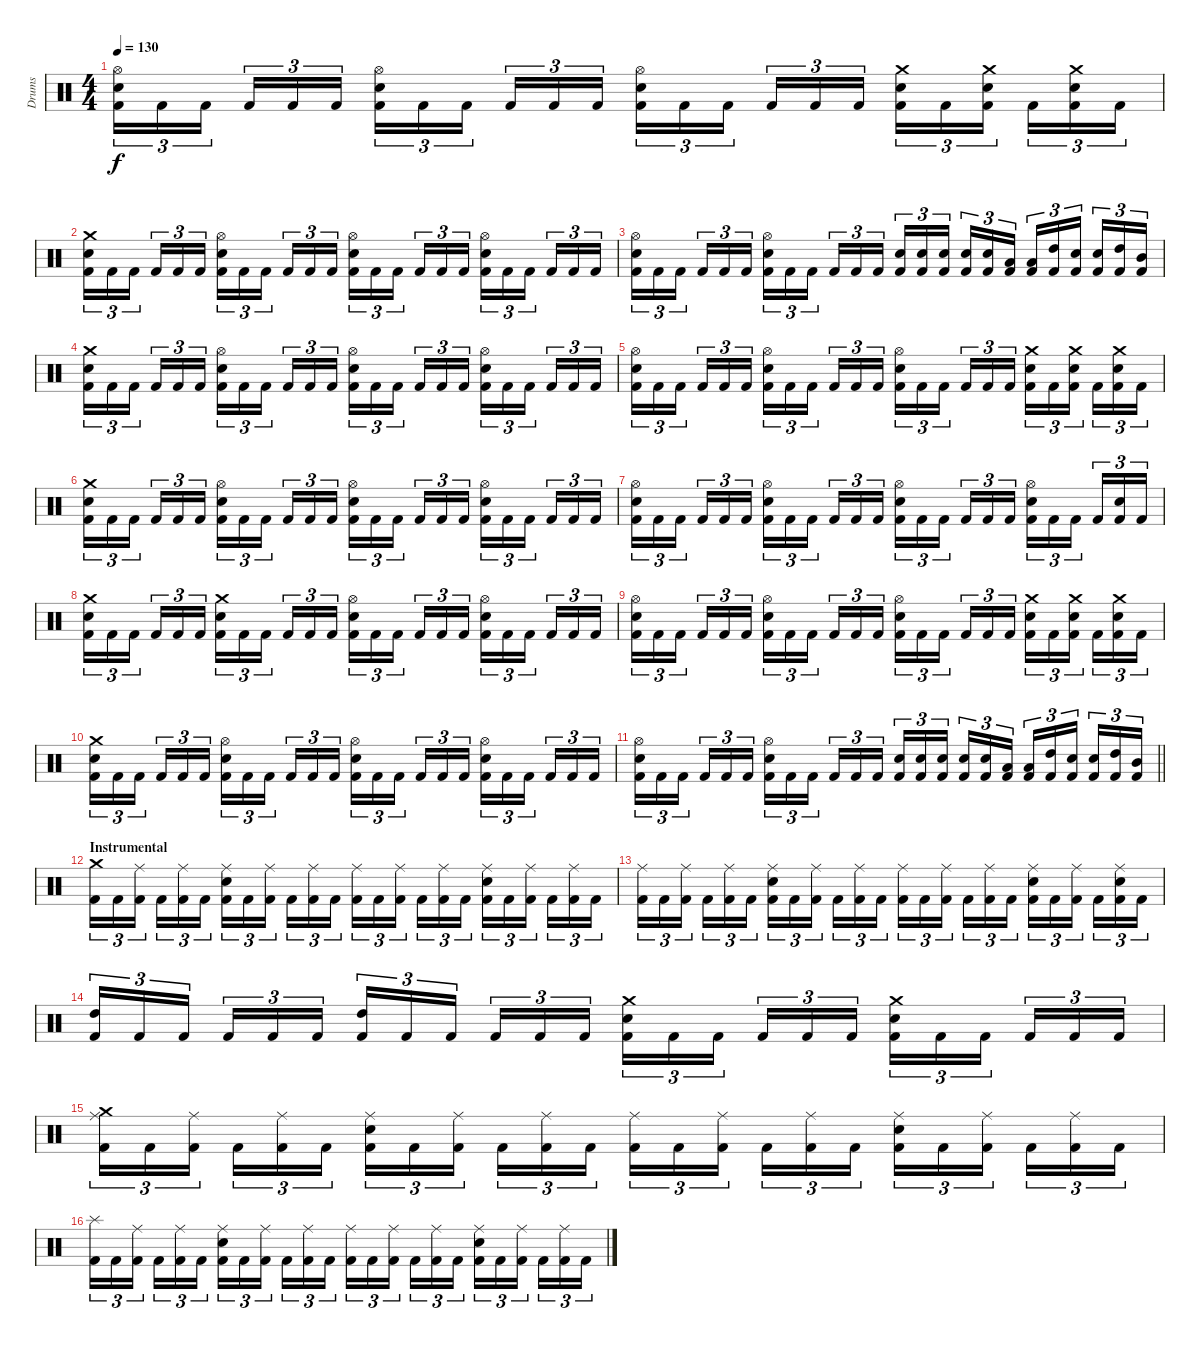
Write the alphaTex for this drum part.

\track ("Drums" "Drums") {instrument percussion}
\staff {score}
\articulation defaults
\ts (4 4)
\tempo 130
\clef neutral
\ks c
("Kick (hit) 2" "Electric Snare (hit)" "Hi-Hat (open)").16{tu (3 2) dy f} "Kick (hit) 2".16{tu (3 2)} "Kick (hit) 2".16{tu (3 2) beam splitsecondary} "Kick (hit) 2".16{tu (3 2)} "Kick (hit) 2".16{tu (3 2)} "Kick (hit) 2".16{tu (3 2)} ("Kick (hit) 2" "Electric Snare (hit)" "Hi-Hat (open)").16{tu (3 2)} "Kick (hit) 2".16{tu (3 2)} "Kick (hit) 2".16{tu (3 2) beam splitsecondary} "Kick (hit) 2".16{tu (3 2)} "Kick (hit) 2".16{tu (3 2)} "Kick (hit) 2".16{tu (3 2)} ("Kick (hit) 2" "Electric Snare (hit)" "Hi-Hat (open)").16{tu (3 2)} "Kick (hit) 2".16{tu (3 2)} "Kick (hit) 2".16{tu (3 2) beam splitsecondary} "Kick (hit) 2".16{tu (3 2)} "Kick (hit) 2".16{tu (3 2)} "Kick (hit) 2".16{tu (3 2)} ("Kick (hit) 2" "Electric Snare (hit)" "Crash medium (hit)").16{tu (3 2)} "Kick (hit) 2".16{tu (3 2)} ("Kick (hit) 2" "Electric Snare (hit)" "Crash medium (hit)").16{tu (3 2) beam splitsecondary} "Kick (hit) 2".16{tu (3 2)} ("Kick (hit) 2" "Electric Snare (hit)" "Crash medium (hit)").16{tu (3 2)} "Kick (hit) 2".16{tu (3 2)} |
("Kick (hit) 2" "Electric Snare (hit)" "Crash medium (hit)").16{tu (3 2)} "Kick (hit) 2".16{tu (3 2)} "Kick (hit) 2".16{tu (3 2) beam splitsecondary} "Kick (hit) 2".16{tu (3 2)} "Kick (hit) 2".16{tu (3 2)} "Kick (hit) 2".16{tu (3 2)} ("Kick (hit) 2" "Electric Snare (hit)" "Hi-Hat (open)").16{tu (3 2)} "Kick (hit) 2".16{tu (3 2)} "Kick (hit) 2".16{tu (3 2) beam splitsecondary} "Kick (hit) 2".16{tu (3 2)} "Kick (hit) 2".16{tu (3 2)} "Kick (hit) 2".16{tu (3 2)} ("Kick (hit) 2" "Electric Snare (hit)" "Hi-Hat (open)").16{tu (3 2)} "Kick (hit) 2".16{tu (3 2)} "Kick (hit) 2".16{tu (3 2) beam splitsecondary} "Kick (hit) 2".16{tu (3 2)} "Kick (hit) 2".16{tu (3 2)} "Kick (hit) 2".16{tu (3 2)} ("Kick (hit) 2" "Electric Snare (hit)" "Hi-Hat (open)").16{tu (3 2)} "Kick (hit) 2".16{tu (3 2)} "Kick (hit) 2".16{tu (3 2) beam splitsecondary} "Kick (hit) 2".16{tu (3 2)} "Kick (hit) 2".16{tu (3 2)} "Kick (hit) 2".16{tu (3 2)} |
("Kick (hit) 2" "Electric Snare (hit)" "Hi-Hat (open)").16{tu (3 2)} "Kick (hit) 2".16{tu (3 2)} "Kick (hit) 2".16{tu (3 2) beam splitsecondary} "Kick (hit) 2".16{tu (3 2)} "Kick (hit) 2".16{tu (3 2)} "Kick (hit) 2".16{tu (3 2)} ("Kick (hit) 2" "Electric Snare (hit)" "Hi-Hat (open)").16{tu (3 2)} "Kick (hit) 2".16{tu (3 2)} "Kick (hit) 2".16{tu (3 2) beam splitsecondary} "Kick (hit) 2".16{tu (3 2)} "Kick (hit) 2".16{tu (3 2)} "Kick (hit) 2".16{tu (3 2)} ("Kick (hit) 2" "Electric Snare (hit)").16{tu (3 2)} ("Kick (hit) 2" "Electric Snare (hit)").16{tu (3 2)} ("Kick (hit) 2" "Electric Snare (hit)").16{tu (3 2) beam splitsecondary} ("Kick (hit) 2" "Electric Snare (hit)").16{tu (3 2)} ("Kick (hit) 2" "Electric Snare (hit)").16{tu (3 2)} ("Kick (hit) 2" "Low Tom (hit)").16{tu (3 2)} ("Kick (hit) 2" "Low Tom (hit)").16{tu (3 2)} ("Kick (hit) 2" "High Tom (hit)").16{tu (3 2)} ("Kick (hit) 2" "Electric Snare (hit)").16{tu (3 2) beam splitsecondary} ("Kick (hit) 2" "Electric Snare (hit)").16{tu (3 2)} ("Kick (hit) 2" "High Tom (hit)").16{tu (3 2)} ("Kick (hit) 2" "Mid Tom (hit)").16{tu (3 2)} |
("Kick (hit) 2" "Electric Snare (hit)" "Crash medium (hit)").16{tu (3 2)} "Kick (hit) 2".16{tu (3 2)} "Kick (hit) 2".16{tu (3 2) beam splitsecondary} "Kick (hit) 2".16{tu (3 2)} "Kick (hit) 2".16{tu (3 2)} "Kick (hit) 2".16{tu (3 2)} ("Kick (hit) 2" "Electric Snare (hit)" "Hi-Hat (open)").16{tu (3 2)} "Kick (hit) 2".16{tu (3 2)} "Kick (hit) 2".16{tu (3 2) beam splitsecondary} "Kick (hit) 2".16{tu (3 2)} "Kick (hit) 2".16{tu (3 2)} "Kick (hit) 2".16{tu (3 2)} ("Kick (hit) 2" "Electric Snare (hit)" "Hi-Hat (open)").16{tu (3 2)} "Kick (hit) 2".16{tu (3 2)} "Kick (hit) 2".16{tu (3 2) beam splitsecondary} "Kick (hit) 2".16{tu (3 2)} "Kick (hit) 2".16{tu (3 2)} "Kick (hit) 2".16{tu (3 2)} ("Kick (hit) 2" "Electric Snare (hit)" "Hi-Hat (open)").16{tu (3 2)} "Kick (hit) 2".16{tu (3 2)} "Kick (hit) 2".16{tu (3 2) beam splitsecondary} "Kick (hit) 2".16{tu (3 2)} "Kick (hit) 2".16{tu (3 2)} "Kick (hit) 2".16{tu (3 2)} |
("Kick (hit) 2" "Electric Snare (hit)" "Hi-Hat (open)").16{tu (3 2)} "Kick (hit) 2".16{tu (3 2)} "Kick (hit) 2".16{tu (3 2) beam splitsecondary} "Kick (hit) 2".16{tu (3 2)} "Kick (hit) 2".16{tu (3 2)} "Kick (hit) 2".16{tu (3 2)} ("Kick (hit) 2" "Electric Snare (hit)" "Hi-Hat (open)").16{tu (3 2)} "Kick (hit) 2".16{tu (3 2)} "Kick (hit) 2".16{tu (3 2) beam splitsecondary} "Kick (hit) 2".16{tu (3 2)} "Kick (hit) 2".16{tu (3 2)} "Kick (hit) 2".16{tu (3 2)} ("Kick (hit) 2" "Electric Snare (hit)" "Hi-Hat (open)").16{tu (3 2)} "Kick (hit) 2".16{tu (3 2)} "Kick (hit) 2".16{tu (3 2) beam splitsecondary} "Kick (hit) 2".16{tu (3 2)} "Kick (hit) 2".16{tu (3 2)} "Kick (hit) 2".16{tu (3 2)} ("Kick (hit) 2" "Electric Snare (hit)" "Crash medium (hit)").16{tu (3 2)} "Kick (hit) 2".16{tu (3 2)} ("Kick (hit) 2" "Electric Snare (hit)" "Crash medium (hit)").16{tu (3 2) beam splitsecondary} "Kick (hit) 2".16{tu (3 2)} ("Kick (hit) 2" "Electric Snare (hit)" "Crash medium (hit)").16{tu (3 2)} "Kick (hit) 2".16{tu (3 2)} |
("Kick (hit) 2" "Electric Snare (hit)" "Crash medium (hit)").16{tu (3 2)} "Kick (hit) 2".16{tu (3 2)} "Kick (hit) 2".16{tu (3 2) beam splitsecondary} "Kick (hit) 2".16{tu (3 2)} "Kick (hit) 2".16{tu (3 2)} "Kick (hit) 2".16{tu (3 2)} ("Kick (hit) 2" "Electric Snare (hit)" "Hi-Hat (open)").16{tu (3 2)} "Kick (hit) 2".16{tu (3 2)} "Kick (hit) 2".16{tu (3 2) beam splitsecondary} "Kick (hit) 2".16{tu (3 2)} "Kick (hit) 2".16{tu (3 2)} "Kick (hit) 2".16{tu (3 2)} ("Kick (hit) 2" "Electric Snare (hit)" "Hi-Hat (open)").16{tu (3 2)} "Kick (hit) 2".16{tu (3 2)} "Kick (hit) 2".16{tu (3 2) beam splitsecondary} "Kick (hit) 2".16{tu (3 2)} "Kick (hit) 2".16{tu (3 2)} "Kick (hit) 2".16{tu (3 2)} ("Kick (hit) 2" "Electric Snare (hit)" "Hi-Hat (open)").16{tu (3 2)} "Kick (hit) 2".16{tu (3 2)} "Kick (hit) 2".16{tu (3 2) beam splitsecondary} "Kick (hit) 2".16{tu (3 2)} "Kick (hit) 2".16{tu (3 2)} "Kick (hit) 2".16{tu (3 2)} |
("Kick (hit) 2" "Electric Snare (hit)" "Hi-Hat (open)").16{tu (3 2)} "Kick (hit) 2".16{tu (3 2)} "Kick (hit) 2".16{tu (3 2) beam splitsecondary} "Kick (hit) 2".16{tu (3 2)} "Kick (hit) 2".16{tu (3 2)} "Kick (hit) 2".16{tu (3 2)} ("Kick (hit) 2" "Electric Snare (hit)" "Hi-Hat (open)").16{tu (3 2)} "Kick (hit) 2".16{tu (3 2)} "Kick (hit) 2".16{tu (3 2) beam splitsecondary} "Kick (hit) 2".16{tu (3 2)} "Kick (hit) 2".16{tu (3 2)} "Kick (hit) 2".16{tu (3 2)} ("Kick (hit) 2" "Electric Snare (hit)" "Hi-Hat (open)").16{tu (3 2)} "Kick (hit) 2".16{tu (3 2)} "Kick (hit) 2".16{tu (3 2) beam splitsecondary} "Kick (hit) 2".16{tu (3 2)} "Kick (hit) 2".16{tu (3 2)} "Kick (hit) 2".16{tu (3 2)} ("Kick (hit) 2" "Electric Snare (hit)" "Hi-Hat (open)").16{tu (3 2)} "Kick (hit) 2".16{tu (3 2)} "Kick (hit) 2".16{tu (3 2) beam splitsecondary} "Kick (hit) 2".16{tu (3 2)} ("Kick (hit) 2" "Electric Snare (hit)").16{tu (3 2)} "Kick (hit) 2".16{tu (3 2)} |
("Kick (hit) 2" "Electric Snare (hit)" "Crash medium (hit)").16{tu (3 2)} "Kick (hit) 2".16{tu (3 2)} "Kick (hit) 2".16{tu (3 2) beam splitsecondary} "Kick (hit) 2".16{tu (3 2)} "Kick (hit) 2".16{tu (3 2)} "Kick (hit) 2".16{tu (3 2)} ("Kick (hit) 2" "Electric Snare (hit)" "Crash medium (hit)").16{tu (3 2)} "Kick (hit) 2".16{tu (3 2)} "Kick (hit) 2".16{tu (3 2) beam splitsecondary} "Kick (hit) 2".16{tu (3 2)} "Kick (hit) 2".16{tu (3 2)} "Kick (hit) 2".16{tu (3 2)} ("Kick (hit) 2" "Electric Snare (hit)" "Hi-Hat (open)").16{tu (3 2)} "Kick (hit) 2".16{tu (3 2)} "Kick (hit) 2".16{tu (3 2) beam splitsecondary} "Kick (hit) 2".16{tu (3 2)} "Kick (hit) 2".16{tu (3 2)} "Kick (hit) 2".16{tu (3 2)} ("Kick (hit) 2" "Electric Snare (hit)" "Hi-Hat (open)").16{tu (3 2)} "Kick (hit) 2".16{tu (3 2)} "Kick (hit) 2".16{tu (3 2) beam splitsecondary} "Kick (hit) 2".16{tu (3 2)} "Kick (hit) 2".16{tu (3 2)} "Kick (hit) 2".16{tu (3 2)} |
("Kick (hit) 2" "Electric Snare (hit)" "Hi-Hat (open)").16{tu (3 2)} "Kick (hit) 2".16{tu (3 2)} "Kick (hit) 2".16{tu (3 2) beam splitsecondary} "Kick (hit) 2".16{tu (3 2)} "Kick (hit) 2".16{tu (3 2)} "Kick (hit) 2".16{tu (3 2)} ("Kick (hit) 2" "Electric Snare (hit)" "Hi-Hat (open)").16{tu (3 2)} "Kick (hit) 2".16{tu (3 2)} "Kick (hit) 2".16{tu (3 2) beam splitsecondary} "Kick (hit) 2".16{tu (3 2)} "Kick (hit) 2".16{tu (3 2)} "Kick (hit) 2".16{tu (3 2)} ("Kick (hit) 2" "Electric Snare (hit)" "Hi-Hat (open)").16{tu (3 2)} "Kick (hit) 2".16{tu (3 2)} "Kick (hit) 2".16{tu (3 2) beam splitsecondary} "Kick (hit) 2".16{tu (3 2)} "Kick (hit) 2".16{tu (3 2)} "Kick (hit) 2".16{tu (3 2)} ("Kick (hit) 2" "Electric Snare (hit)" "Crash medium (hit)").16{tu (3 2)} "Kick (hit) 2".16{tu (3 2)} ("Kick (hit) 2" "Electric Snare (hit)" "Crash medium (hit)").16{tu (3 2) beam splitsecondary} "Kick (hit) 2".16{tu (3 2)} ("Kick (hit) 2" "Electric Snare (hit)" "Crash medium (hit)").16{tu (3 2)} "Kick (hit) 2".16{tu (3 2)} |
("Kick (hit) 2" "Electric Snare (hit)" "Crash medium (hit)").16{tu (3 2)} "Kick (hit) 2".16{tu (3 2)} "Kick (hit) 2".16{tu (3 2) beam splitsecondary} "Kick (hit) 2".16{tu (3 2)} "Kick (hit) 2".16{tu (3 2)} "Kick (hit) 2".16{tu (3 2)} ("Kick (hit) 2" "Electric Snare (hit)" "Hi-Hat (open)").16{tu (3 2)} "Kick (hit) 2".16{tu (3 2)} "Kick (hit) 2".16{tu (3 2) beam splitsecondary} "Kick (hit) 2".16{tu (3 2)} "Kick (hit) 2".16{tu (3 2)} "Kick (hit) 2".16{tu (3 2)} ("Kick (hit) 2" "Electric Snare (hit)" "Hi-Hat (open)").16{tu (3 2)} "Kick (hit) 2".16{tu (3 2)} "Kick (hit) 2".16{tu (3 2) beam splitsecondary} "Kick (hit) 2".16{tu (3 2)} "Kick (hit) 2".16{tu (3 2)} "Kick (hit) 2".16{tu (3 2)} ("Kick (hit) 2" "Electric Snare (hit)" "Hi-Hat (open)").16{tu (3 2)} "Kick (hit) 2".16{tu (3 2)} "Kick (hit) 2".16{tu (3 2) beam splitsecondary} "Kick (hit) 2".16{tu (3 2)} "Kick (hit) 2".16{tu (3 2)} "Kick (hit) 2".16{tu (3 2)} |
\barLineRight lightlight
("Kick (hit) 2" "Electric Snare (hit)" "Hi-Hat (open)").16{tu (3 2)} "Kick (hit) 2".16{tu (3 2)} "Kick (hit) 2".16{tu (3 2) beam splitsecondary} "Kick (hit) 2".16{tu (3 2)} "Kick (hit) 2".16{tu (3 2)} "Kick (hit) 2".16{tu (3 2)} ("Kick (hit) 2" "Electric Snare (hit)" "Hi-Hat (open)").16{tu (3 2)} "Kick (hit) 2".16{tu (3 2)} "Kick (hit) 2".16{tu (3 2) beam splitsecondary} "Kick (hit) 2".16{tu (3 2)} "Kick (hit) 2".16{tu (3 2)} "Kick (hit) 2".16{tu (3 2)} ("Kick (hit) 2" "Electric Snare (hit)").16{tu (3 2)} ("Kick (hit) 2" "Electric Snare (hit)").16{tu (3 2)} ("Kick (hit) 2" "Electric Snare (hit)").16{tu (3 2) beam splitsecondary} ("Kick (hit) 2" "Electric Snare (hit)").16{tu (3 2)} ("Kick (hit) 2" "Electric Snare (hit)").16{tu (3 2)} ("Kick (hit) 2" "Low Tom (hit)").16{tu (3 2)} ("Kick (hit) 2" "Low Tom (hit)").16{tu (3 2)} ("Kick (hit) 2" "High Tom (hit)").16{tu (3 2)} ("Kick (hit) 2" "Electric Snare (hit)").16{tu (3 2) beam splitsecondary} ("Kick (hit) 2" "Electric Snare (hit)").16{tu (3 2)} ("Kick (hit) 2" "High Tom (hit)").16{tu (3 2)} ("Kick (hit) 2" "Mid Tom (hit)").16{tu (3 2)} |
\section ("" "Instrumental")
("Kick (hit) 2" "Crash medium (hit)").16{tu (3 2)} "Kick (hit) 2".16{tu (3 2)} ("Kick (hit) 2" "Ride (middle)").16{tu (3 2) beam splitsecondary} "Kick (hit) 2".16{tu (3 2)} ("Kick (hit) 2" "Ride (middle)").16{tu (3 2)} "Kick (hit) 2".16{tu (3 2)} ("Kick (hit) 2" "Electric Snare (hit)" "Ride (middle)").16{tu (3 2)} "Kick (hit) 2".16{tu (3 2)} ("Kick (hit) 2" "Ride (middle)").16{tu (3 2) beam splitsecondary} "Kick (hit) 2".16{tu (3 2)} ("Kick (hit) 2" "Ride (middle)").16{tu (3 2)} "Kick (hit) 2".16{tu (3 2)} ("Kick (hit) 2" "Ride (middle)").16{tu (3 2)} "Kick (hit) 2".16{tu (3 2)} ("Kick (hit) 2" "Ride (middle)").16{tu (3 2) beam splitsecondary} "Kick (hit) 2".16{tu (3 2)} ("Kick (hit) 2" "Ride (middle)").16{tu (3 2)} "Kick (hit) 2".16{tu (3 2)} ("Kick (hit) 2" "Electric Snare (hit)" "Ride (middle)").16{tu (3 2)} "Kick (hit) 2".16{tu (3 2)} ("Kick (hit) 2" "Ride (middle)").16{tu (3 2) beam splitsecondary} "Kick (hit) 2".16{tu (3 2)} ("Kick (hit) 2" "Ride (middle)").16{tu (3 2)} "Kick (hit) 2".16{tu (3 2)} |
("Kick (hit) 2" "Ride (middle)").16{tu (3 2)} "Kick (hit) 2".16{tu (3 2)} ("Kick (hit) 2" "Ride (middle)").16{tu (3 2) beam splitsecondary} "Kick (hit) 2".16{tu (3 2)} ("Kick (hit) 2" "Ride (middle)").16{tu (3 2)} "Kick (hit) 2".16{tu (3 2)} ("Kick (hit) 2" "Electric Snare (hit)" "Ride (middle)").16{tu (3 2)} "Kick (hit) 2".16{tu (3 2)} ("Kick (hit) 2" "Ride (middle)").16{tu (3 2) beam splitsecondary} "Kick (hit) 2".16{tu (3 2)} ("Kick (hit) 2" "Ride (middle)").16{tu (3 2)} "Kick (hit) 2".16{tu (3 2)} ("Kick (hit) 2" "Ride (middle)").16{tu (3 2)} "Kick (hit) 2".16{tu (3 2)} ("Kick (hit) 2" "Ride (middle)").16{tu (3 2) beam splitsecondary} "Kick (hit) 2".16{tu (3 2)} ("Kick (hit) 2" "Ride (middle)").16{tu (3 2)} "Kick (hit) 2".16{tu (3 2)} ("Kick (hit) 2" "Electric Snare (hit)" "Ride (middle)").16{tu (3 2)} "Kick (hit) 2".16{tu (3 2)} ("Kick (hit) 2" "Ride (middle)").16{tu (3 2) beam splitsecondary} "Kick (hit) 2".16{tu (3 2)} ("Kick (hit) 2" "Electric Snare (hit)" "Ride (middle)").16{tu (3 2)} "Kick (hit) 2".16{tu (3 2)} |
("Kick (hit) 2" "High Tom (hit)").16{tu (3 2)} "Kick (hit) 2".16{tu (3 2)} "Kick (hit) 2".16{tu (3 2) beam splitsecondary} "Kick (hit) 2".16{tu (3 2)} "Kick (hit) 2".16{tu (3 2)} "Kick (hit) 2".16{tu (3 2)} ("Kick (hit) 2" "High Tom (hit)").16{tu (3 2)} "Kick (hit) 2".16{tu (3 2)} "Kick (hit) 2".16{tu (3 2) beam splitsecondary} "Kick (hit) 2".16{tu (3 2)} "Kick (hit) 2".16{tu (3 2)} "Kick (hit) 2".16{tu (3 2)} ("Kick (hit) 2" "Electric Snare (hit)" "Crash medium (hit)").16{tu (3 2)} "Kick (hit) 2".16{tu (3 2)} "Kick (hit) 2".16{tu (3 2) beam splitsecondary} "Kick (hit) 2".16{tu (3 2)} "Kick (hit) 2".16{tu (3 2)} "Kick (hit) 2".16{tu (3 2)} ("Kick (hit) 2" "Electric Snare (hit)" "Crash medium (hit)").16{tu (3 2)} "Kick (hit) 2".16{tu (3 2)} "Kick (hit) 2".16{tu (3 2) beam splitsecondary} "Kick (hit) 2".16{tu (3 2)} "Kick (hit) 2".16{tu (3 2)} "Kick (hit) 2".16{tu (3 2)} |
("Kick (hit) 2" "Crash medium (hit)" "Ride (middle)").16{tu (3 2)} "Kick (hit) 2".16{tu (3 2)} ("Kick (hit) 2" "Ride (middle)").16{tu (3 2) beam splitsecondary} "Kick (hit) 2".16{tu (3 2)} ("Kick (hit) 2" "Ride (middle)").16{tu (3 2)} "Kick (hit) 2".16{tu (3 2)} ("Kick (hit) 2" "Electric Snare (hit)" "Ride (middle)").16{tu (3 2)} "Kick (hit) 2".16{tu (3 2)} ("Kick (hit) 2" "Ride (middle)").16{tu (3 2) beam splitsecondary} "Kick (hit) 2".16{tu (3 2)} ("Kick (hit) 2" "Ride (middle)").16{tu (3 2)} "Kick (hit) 2".16{tu (3 2)} ("Kick (hit) 2" "Ride (middle)").16{tu (3 2)} "Kick (hit) 2".16{tu (3 2)} ("Kick (hit) 2" "Ride (middle)").16{tu (3 2) beam splitsecondary} "Kick (hit) 2".16{tu (3 2)} ("Kick (hit) 2" "Ride (middle)").16{tu (3 2)} "Kick (hit) 2".16{tu (3 2)} ("Kick (hit) 2" "Electric Snare (hit)" "Ride (middle)").16{tu (3 2)} "Kick (hit) 2".16{tu (3 2)} ("Kick (hit) 2" "Ride (middle)").16{tu (3 2) beam splitsecondary} "Kick (hit) 2".16{tu (3 2)} ("Kick (hit) 2" "Ride (middle)").16{tu (3 2)} "Kick (hit) 2".16{tu (3 2)} |
("Kick (hit) 2" "Splash (hit)").16{tu (3 2)} "Kick (hit) 2".16{tu (3 2)} ("Kick (hit) 2" "Ride (middle)").16{tu (3 2) beam splitsecondary} "Kick (hit) 2".16{tu (3 2)} ("Kick (hit) 2" "Ride (middle)").16{tu (3 2)} "Kick (hit) 2".16{tu (3 2)} ("Kick (hit) 2" "Electric Snare (hit)" "Ride (middle)").16{tu (3 2)} "Kick (hit) 2".16{tu (3 2)} ("Kick (hit) 2" "Ride (middle)").16{tu (3 2) beam splitsecondary} "Kick (hit) 2".16{tu (3 2)} ("Kick (hit) 2" "Ride (middle)").16{tu (3 2)} "Kick (hit) 2".16{tu (3 2)} ("Kick (hit) 2" "Ride (middle)").16{tu (3 2)} "Kick (hit) 2".16{tu (3 2)} ("Kick (hit) 2" "Ride (middle)").16{tu (3 2) beam splitsecondary} "Kick (hit) 2".16{tu (3 2)} ("Kick (hit) 2" "Ride (middle)").16{tu (3 2)} "Kick (hit) 2".16{tu (3 2)} ("Kick (hit) 2" "Electric Snare (hit)" "Ride (middle)").16{tu (3 2)} "Kick (hit) 2".16{tu (3 2)} ("Kick (hit) 2" "Ride (middle)").16{tu (3 2) beam splitsecondary} "Kick (hit) 2".16{tu (3 2)} ("Kick (hit) 2" "Ride (middle)").16{tu (3 2)} "Kick (hit) 2".16{tu (3 2)}
